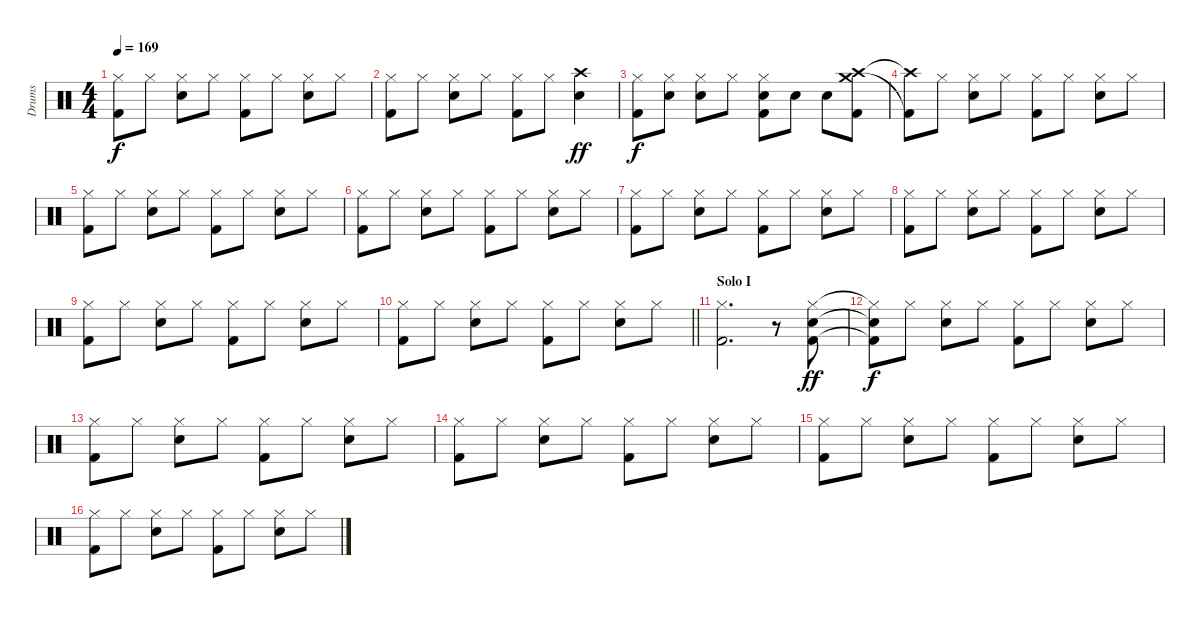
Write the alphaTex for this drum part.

\track ("Drums" "Drums") {instrument percussion}
\staff {score}
\articulation defaults
\ts (4 4)
\tempo 169
\clef neutral
\ks c
("Hi-Hat (closed)" "Kick (hit) 2").8{dy f} "Hi-Hat (closed)".8 ("Hi-Hat (closed)" "Snare (hit) 2").8 "Hi-Hat (closed)".8 ("Hi-Hat (closed)" "Kick (hit) 2").8 "Hi-Hat (closed)".8 ("Hi-Hat (closed)" "Snare (hit) 2").8 "Hi-Hat (closed)".8 |
("Hi-Hat (closed)" "Kick (hit) 2").8 "Hi-Hat (closed)".8 ("Hi-Hat (closed)" "Snare (hit) 2").8 "Hi-Hat (closed)".8 ("Hi-Hat (closed)" "Kick (hit) 2").8 "Hi-Hat (closed)".8 ("Crash high (hit)" "Snare (hit) 2").4{dy ff} |
("Hi-Hat (closed)" "Kick (hit) 2").8{dy f} ("Hi-Hat (closed)" "Snare (hit) 2").8 ("Hi-Hat (closed)" "Snare (hit) 2").8 "Hi-Hat (closed)".8 ("Hi-Hat (closed)" "Snare (hit) 2" "Kick (hit) 2").8 "Snare (hit) 2".8 "Snare (hit) 2".8 ("Crash high (hit)" "Crash medium (hit)" "Kick (hit) 2").8 |
("Crash high (hit)"{t} "Kick (hit) 2"{t}).8 "Hi-Hat (closed)".8 ("Hi-Hat (closed)" "Snare (hit) 2").8 "Hi-Hat (closed)".8 ("Hi-Hat (closed)" "Kick (hit) 2").8 "Hi-Hat (closed)".8 ("Hi-Hat (closed)" "Snare (hit) 2").8 "Hi-Hat (closed)".8 |
("Hi-Hat (closed)" "Kick (hit) 2").8 "Hi-Hat (closed)".8 ("Hi-Hat (closed)" "Snare (hit) 2").8 "Hi-Hat (closed)".8 ("Hi-Hat (closed)" "Kick (hit) 2").8 "Hi-Hat (closed)".8 ("Hi-Hat (closed)" "Snare (hit) 2").8 "Hi-Hat (closed)".8 |
("Hi-Hat (closed)" "Kick (hit) 2").8 "Hi-Hat (closed)".8 ("Hi-Hat (closed)" "Snare (hit) 2").8 "Hi-Hat (closed)".8 ("Hi-Hat (closed)" "Kick (hit) 2").8 "Hi-Hat (closed)".8 ("Hi-Hat (closed)" "Snare (hit) 2").8 "Hi-Hat (closed)".8 |
("Hi-Hat (closed)" "Kick (hit) 2").8 "Hi-Hat (closed)".8 ("Hi-Hat (closed)" "Snare (hit) 2").8 "Hi-Hat (closed)".8 ("Hi-Hat (closed)" "Kick (hit) 2").8 "Hi-Hat (closed)".8 ("Hi-Hat (closed)" "Snare (hit) 2").8 "Hi-Hat (closed)".8 |
("Hi-Hat (closed)" "Kick (hit) 2").8 "Hi-Hat (closed)".8 ("Hi-Hat (closed)" "Snare (hit) 2").8 "Hi-Hat (closed)".8 ("Hi-Hat (closed)" "Kick (hit) 2").8 "Hi-Hat (closed)".8 ("Hi-Hat (closed)" "Snare (hit) 2").8 "Hi-Hat (closed)".8 |
("Hi-Hat (closed)" "Kick (hit) 2").8 "Hi-Hat (closed)".8 ("Hi-Hat (closed)" "Snare (hit) 2").8 "Hi-Hat (closed)".8 ("Hi-Hat (closed)" "Kick (hit) 2").8 "Hi-Hat (closed)".8 ("Hi-Hat (closed)" "Snare (hit) 2").8 "Hi-Hat (closed)".8 |
\barLineRight lightlight
("Hi-Hat (closed)" "Kick (hit) 2").8 "Hi-Hat (closed)".8 ("Hi-Hat (closed)" "Snare (hit) 2").8 "Hi-Hat (closed)".8 ("Hi-Hat (closed)" "Kick (hit) 2").8 "Hi-Hat (closed)".8 ("Hi-Hat (closed)" "Snare (hit) 2").8 "Hi-Hat (closed)".8 |
\section ("" "Solo I")
("Hi-Hat (closed)" "Kick (hit) 2").2{d} r.8 ("Hi-Hat (closed)" "Electric Snare (hit)" "Kick (hit) 2").8{dy ff} |
("Hi-Hat (closed)"{t} "Snare (hit)"{t} "Kick (hit) 2"{t}).8{dy f} "Hi-Hat (closed)".8 ("Hi-Hat (closed)" "Snare (hit) 2").8 "Hi-Hat (closed)".8 ("Hi-Hat (closed)" "Kick (hit) 2").8 "Hi-Hat (closed)".8 ("Hi-Hat (closed)" "Snare (hit) 2").8 "Hi-Hat (closed)".8 |
("Hi-Hat (closed)" "Kick (hit) 2").8 "Hi-Hat (closed)".8 ("Hi-Hat (closed)" "Snare (hit) 2").8 "Hi-Hat (closed)".8 ("Hi-Hat (closed)" "Kick (hit) 2").8 "Hi-Hat (closed)".8 ("Hi-Hat (closed)" "Snare (hit) 2").8 "Hi-Hat (closed)".8 |
("Hi-Hat (closed)" "Kick (hit) 2").8 "Hi-Hat (closed)".8 ("Hi-Hat (closed)" "Snare (hit) 2").8 "Hi-Hat (closed)".8 ("Hi-Hat (closed)" "Kick (hit) 2").8 "Hi-Hat (closed)".8 ("Hi-Hat (closed)" "Snare (hit) 2").8 "Hi-Hat (closed)".8 |
("Hi-Hat (closed)" "Kick (hit) 2").8 "Hi-Hat (closed)".8 ("Hi-Hat (closed)" "Snare (hit) 2").8 "Hi-Hat (closed)".8 ("Hi-Hat (closed)" "Kick (hit) 2").8 "Hi-Hat (closed)".8 ("Hi-Hat (closed)" "Snare (hit) 2").8 "Hi-Hat (closed)".8 |
("Hi-Hat (closed)" "Kick (hit) 2").8 "Hi-Hat (closed)".8 ("Hi-Hat (closed)" "Snare (hit) 2").8 "Hi-Hat (closed)".8 ("Hi-Hat (closed)" "Kick (hit) 2").8 "Hi-Hat (closed)".8 ("Hi-Hat (closed)" "Snare (hit) 2").8 "Hi-Hat (closed)".8
